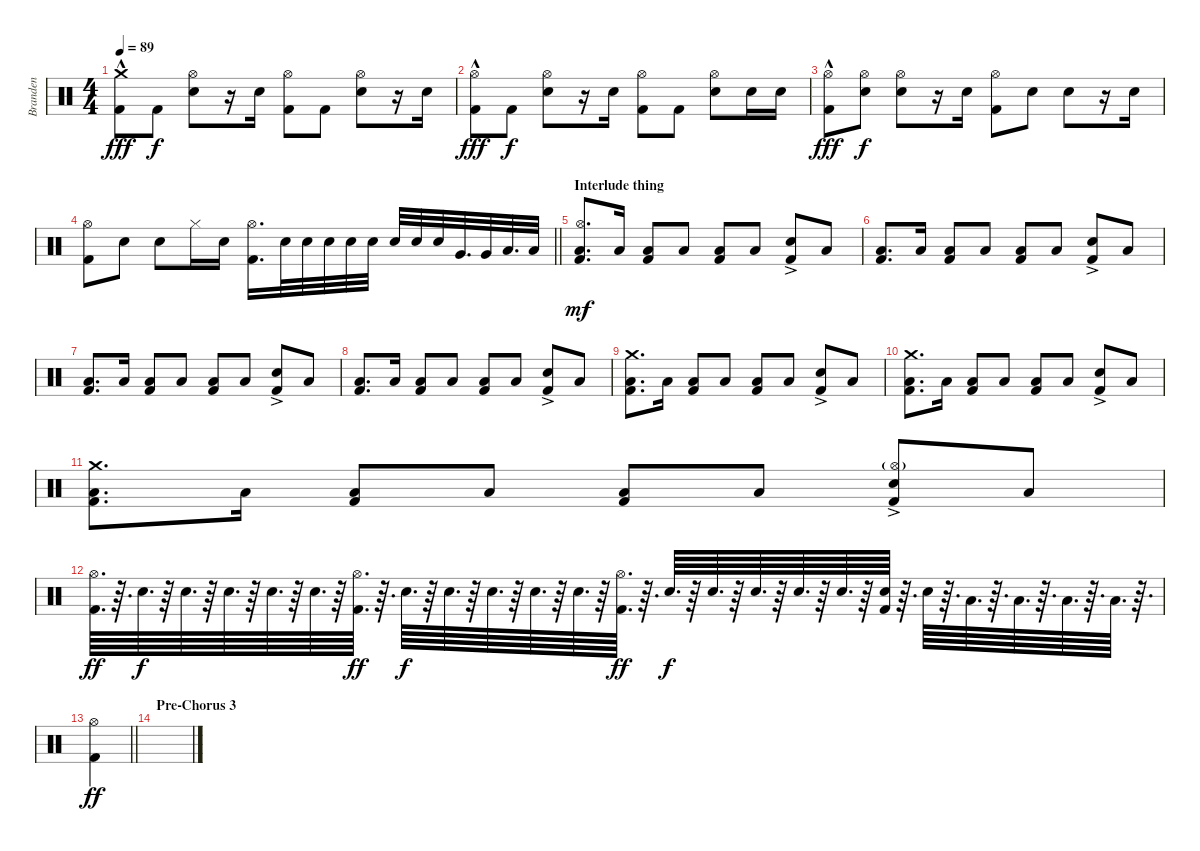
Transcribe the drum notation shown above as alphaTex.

\track ("Branden" "Branden") {instrument percussion}
\staff {score}
\articulation defaults
\ts (4 4)
\tempo 89
\clef neutral
\ks c
("Crash medium (hit)"{hac} "Kick (hit) 2").8{dy fff} "Kick (hit) 2".8{dy f} ("Hi-Hat (open)" "Electric Snare (hit)").8 r.16 "Electric Snare (hit)".16 ("Hi-Hat (open)" "Kick (hit) 2").8 "Kick (hit) 2".8 ("Hi-Hat (open)" "Electric Snare (hit)").8 r.16 "Electric Snare (hit)".16 |
("Hi-Hat (open)"{hac} "Kick (hit) 2").8{dy fff} "Kick (hit) 2".8{dy f} ("Hi-Hat (open)" "Electric Snare (hit)").8 r.16 "Electric Snare (hit)".16 ("Hi-Hat (open)" "Kick (hit) 2").8 "Kick (hit) 2".8 ("Hi-Hat (open)" "Electric Snare (hit)").8 "Electric Snare (hit)".16 "Electric Snare (hit)".16 |
("Hi-Hat (open)"{hac} "Kick (hit) 2").8{dy fff} ("Hi-Hat (open)" "Electric Snare (hit)").8{dy f} ("Hi-Hat (open)" "Electric Snare (hit)").8 r.16 "Electric Snare (hit)".16 ("Hi-Hat (open)" "Kick (hit) 2").8 "Electric Snare (hit)".8 "Electric Snare (hit)".8 r.16 "Electric Snare (hit)".16 |
\barLineRight lightlight
("Hi-Hat (open)" "Kick (hit) 2").8 "Electric Snare (hit)".8 "Electric Snare (hit)".8 "Hi-Hat (closed)".16 "Electric Snare (hit)".16 ("Hi-Hat (open)" "Kick (hit) 2").16{d} "Electric Snare (hit)".32 "Electric Snare (hit)".32 "Electric Snare (hit)".32 "Electric Snare (hit)".32 "Electric Snare (hit)".32 "Electric Snare (hit)".32 "Electric Snare (hit)".32 "Electric Snare (hit)".32 "Very Low Tom (hit)".32{d} "Very Low Tom (hit)".32 "Low Floor Tom (hit)".32{d} "Low Floor Tom (hit)".32 |
\section ("" "Interlude thing")
("Hi-Hat (open)" "Low Floor Tom (hit)" "Kick (hit) 2").8{d dy mf} "Low Tom (hit)".16 ("Low Floor Tom (hit)" "Kick (hit) 2").8 "Low Floor Tom (hit)".8 ("Low Floor Tom (hit)" "Kick (hit) 2").8 "Low Tom (hit)".8 ("Electric Snare (hit)"{ac} "Kick (hit) 2").8 "Low Floor Tom (hit)".8 |
("Low Floor Tom (hit)" "Kick (hit) 2").8{d} "Low Floor Tom (hit)".16 ("Low Floor Tom (hit)" "Kick (hit) 2").8 "Low Floor Tom (hit)".8 ("Low Floor Tom (hit)" "Kick (hit) 2").8 "Low Tom (hit)".8 ("Electric Snare (hit)"{ac} "Kick (hit) 2").8 "Low Floor Tom (hit)".8 |
("Low Floor Tom (hit)" "Kick (hit) 2").8{d} "Low Tom (hit)".16 ("Low Floor Tom (hit)" "Kick (hit) 2").8 "Low Floor Tom (hit)".8 ("Low Floor Tom (hit)" "Kick (hit) 2").8 "Low Tom (hit)".8 ("Electric Snare (hit)"{ac} "Kick (hit) 2").8 "Low Floor Tom (hit)".8 |
("Low Floor Tom (hit)" "Kick (hit) 2").8{d} "Low Tom (hit)".16 ("Low Floor Tom (hit)" "Kick (hit) 2").8 "Low Floor Tom (hit)".8 ("Low Floor Tom (hit)" "Kick (hit) 2").8 "Low Tom (hit)".8 ("Electric Snare (hit)"{ac} "Kick (hit) 2").8 "Low Floor Tom (hit)".8 |
("Crash medium (hit)" "Low Floor Tom (hit)" "Kick (hit) 2").8{d} "Low Tom (hit)".16 ("Low Floor Tom (hit)" "Kick (hit) 2").8 "Low Floor Tom (hit)".8 ("Low Floor Tom (hit)" "Kick (hit) 2").8 "Low Tom (hit)".8 ("Electric Snare (hit)"{ac} "Kick (hit) 2").8 "Low Floor Tom (hit)".8 |
("Crash medium (hit)" "Low Floor Tom (hit)" "Kick (hit) 2").8{d} "Low Tom (hit)".16 ("Low Floor Tom (hit)" "Kick (hit) 2").8 "Low Floor Tom (hit)".8 ("Low Floor Tom (hit)" "Kick (hit) 2").8 "Low Tom (hit)".8 ("Electric Snare (hit)"{ac} "Kick (hit) 2").8 "Low Floor Tom (hit)".8 |
("Crash medium (hit)" "Low Floor Tom (hit)" "Kick (hit) 2").8{d} "Low Tom (hit)".16 ("Low Floor Tom (hit)" "Kick (hit) 2").8 "Low Floor Tom (hit)".8 ("Low Floor Tom (hit)" "Kick (hit) 2").8 "Low Tom (hit)".8 ("Hi-Hat (open)"{g} "Electric Snare (hit)"{ac} "Kick (hit) 2").8 "Low Floor Tom (hit)".8 |
("Hi-Hat (open)" "Kick (hit) 2").64{d dy ff} r.64{d} "Electric Snare (hit)".64{d dy f} r.64 "Electric Snare (hit)".64{d} r.64 "Electric Snare (hit)".64{d} r.64 "Electric Snare (hit)".64{d} r.64 "Electric Snare (hit)".64{d} r.64 ("Hi-Hat (open)" "Kick (hit) 2").64{d dy ff} r.64{d} "Electric Snare (hit)".64{d dy f} r.64 "Electric Snare (hit)".64{d} r.64 "Electric Snare (hit)".64{d} r.64 "Electric Snare (hit)".64{d} r.64 "Electric Snare (hit)".64{d} r.64 ("Hi-Hat (open)" "Kick (hit) 2").64{d dy ff} r.64{d} "Electric Snare (hit)".64{d dy f} r.64 "Electric Snare (hit)".64{d} r.64 "Electric Snare (hit)".64{d} r.64 "Electric Snare (hit)".64{d} r.64 "Electric Snare (hit)".64{d} r.64 ("Electric Snare (hit)" "Kick (hit) 2").64 r.64{d} "Electric Snare (hit)".64 r.64{d} "Low Tom (hit)".64{d} r.64{d} "Low Tom (hit)".64{d} r.64{d} "Low Floor Tom (hit)".64{d} r.64{d} "Low Floor Tom (hit)".64{d} r.64{d} |
\barLineRight lightlight
("Hi-Hat (open)" "Kick (hit) 2").4{dy ff} |
\section ("" "Pre-Chorus 3")
